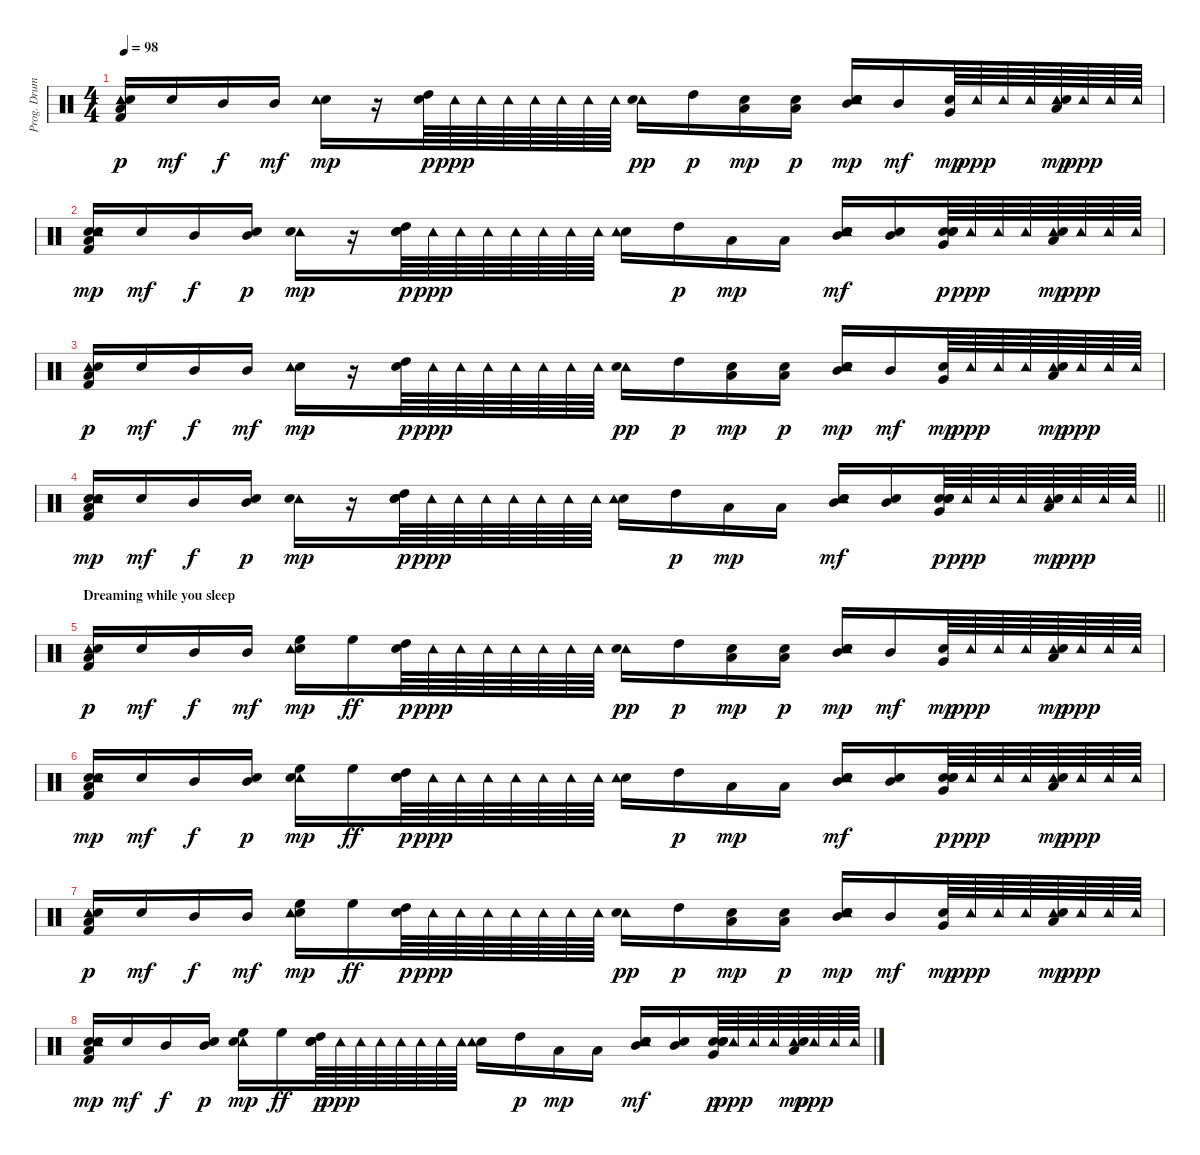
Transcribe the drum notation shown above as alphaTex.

\track ("Prog. Drums" "Prog. Drum") {instrument percussion}
\staff {score}
\articulation defaults
\ts (4 4)
\tempo 98
\clef neutral
\ks c
("Tambourine (hit)" "Snare (hit)" "Low Floor Tom (hit)" "Kick (hit) 2").16{dy p} "Snare (hit)".16{dy mf} "Mid Tom (hit)".16{dy f} "Mid Tom (hit)".16{dy mf} ("Snare (hit) 2" "Tambourine (hit)").16{dy mp} r.16 ("High Tom (hit)" "Snare (hit)").64{dy p} "Tambourine (hit)".64{dy ppp} "Tambourine (hit)".64 "Tambourine (hit)".64 "Tambourine (hit)".64 "Tambourine (hit)".64 "Tambourine (hit)".64 "Tambourine (hit)".64 ("Tambourine (hit)" "Snare (hit) 2").16{dy pp} "High Tom (hit)".16{dy p} ("Snare (hit)" "Low Tom (hit)").16{dy mp} ("Low Tom (hit)" "Snare (hit)").16{dy p} ("Snare (hit) 2" "Mid Tom (hit)" "Snare (hit)" "Tambourine (hit)").16{dy mp} "Mid Tom (hit)".16{dy mf} ("Snare (hit)" "Very Low Tom (hit)").64{dy mp} "Tambourine (hit)".64{dy ppp} "Tambourine (hit)".64 "Tambourine (hit)".64 ("Tambourine (hit)" "Snare (hit) 2" "Low Tom (hit)").64{dy mp} "Tambourine (hit)".64{dy ppp} "Tambourine (hit)".64 "Tambourine (hit)".64 |
("Snare (hit)" "Snare (hit)" "Tambourine (hit)" "Kick (hit) 2" "Low Floor Tom (hit)").16{dy mp} "Snare (hit)".16{dy mf} "Mid Tom (hit)".16{dy f} ("Mid Tom (hit)" "Snare (hit)").16{dy p} ("Tambourine (hit)" "Snare (hit) 2").16{dy mp} r.16 ("High Tom (hit)" "Snare (hit)" "Snare (hit)").64{dy p} "Tambourine (hit)".64{dy ppp} "Tambourine (hit)".64 "Tambourine (hit)".64 "Tambourine (hit)".64 "Tambourine (hit)".64 "Tambourine (hit)".64 "Tambourine (hit)".64 ("Snare (hit) 2" "Tambourine (hit)").16 "High Tom (hit)".16{dy p} "Low Tom (hit)".16{dy mp} "Low Tom (hit)".16 ("Tambourine (hit)" "Snare (hit)" "Snare (hit) 2" "Mid Tom (hit)").16{dy mf} ("Snare (hit) 2" "Mid Tom (hit)").16 ("Snare (hit) 2" "Very Low Tom (hit)" "Snare (hit)" "Snare (hit)").64{dy p} "Tambourine (hit)".64{dy ppp} "Tambourine (hit)".64 "Tambourine (hit)".64 ("Tambourine (hit)" "Snare (hit) 2" "Low Tom (hit)").64{dy mp} "Tambourine (hit)".64{dy ppp} "Tambourine (hit)".64 "Tambourine (hit)".64 |
("Tambourine (hit)" "Snare (hit)" "Low Floor Tom (hit)" "Kick (hit) 2").16{dy p} "Snare (hit)".16{dy mf} "Mid Tom (hit)".16{dy f} "Mid Tom (hit)".16{dy mf} ("Snare (hit) 2" "Tambourine (hit)").16{dy mp} r.16 ("High Tom (hit)" "Snare (hit)").64{dy p} "Tambourine (hit)".64{dy ppp} "Tambourine (hit)".64 "Tambourine (hit)".64 "Tambourine (hit)".64 "Tambourine (hit)".64 "Tambourine (hit)".64 "Tambourine (hit)".64 ("Tambourine (hit)" "Snare (hit) 2").16{dy pp} "High Tom (hit)".16{dy p} ("Snare (hit)" "Low Tom (hit)").16{dy mp} ("Low Tom (hit)" "Snare (hit)").16{dy p} ("Snare (hit) 2" "Mid Tom (hit)" "Snare (hit)" "Tambourine (hit)").16{dy mp} "Mid Tom (hit)".16{dy mf} ("Snare (hit)" "Very Low Tom (hit)").64{dy mp} "Tambourine (hit)".64{dy ppp} "Tambourine (hit)".64 "Tambourine (hit)".64 ("Tambourine (hit)" "Snare (hit) 2" "Low Tom (hit)").64{dy mp} "Tambourine (hit)".64{dy ppp} "Tambourine (hit)".64 "Tambourine (hit)".64 |
\barLineRight lightlight
("Snare (hit)" "Snare (hit)" "Tambourine (hit)" "Kick (hit) 2" "Low Floor Tom (hit)").16{dy mp} "Snare (hit)".16{dy mf} "Mid Tom (hit)".16{dy f} ("Mid Tom (hit)" "Snare (hit)").16{dy p} ("Tambourine (hit)" "Snare (hit) 2").16{dy mp} r.16 ("High Tom (hit)" "Snare (hit)" "Snare (hit)").64{dy p} "Tambourine (hit)".64{dy ppp} "Tambourine (hit)".64 "Tambourine (hit)".64 "Tambourine (hit)".64 "Tambourine (hit)".64 "Tambourine (hit)".64 "Tambourine (hit)".64 ("Snare (hit) 2" "Tambourine (hit)").16 "High Tom (hit)".16{dy p} "Low Tom (hit)".16{dy mp} "Low Tom (hit)".16 ("Tambourine (hit)" "Snare (hit)" "Snare (hit) 2" "Mid Tom (hit)").16{dy mf} ("Snare (hit) 2" "Mid Tom (hit)").16 ("Snare (hit) 2" "Very Low Tom (hit)" "Snare (hit)" "Snare (hit)").64{dy p} "Tambourine (hit)".64{dy ppp} "Tambourine (hit)".64 "Tambourine (hit)".64 ("Tambourine (hit)" "Snare (hit) 2" "Low Tom (hit)").64{dy mp} "Tambourine (hit)".64{dy ppp} "Tambourine (hit)".64 "Tambourine (hit)".64 |
\section ("" "Dreaming while you sleep")
("Tambourine (hit)" "Snare (hit)" "Low Floor Tom (hit)" "Kick (hit) 2").16{dy p} "Snare (hit)".16{dy mf} "Mid Tom (hit)".16{dy f} "Mid Tom (hit)".16{dy mf} ("Snare (hit) 2" "High Floor Tom (hit)" "Tambourine (hit)").16{dy mp} "High Floor Tom (hit)".16{dy ff} ("High Tom (hit)" "Snare (hit)").64{dy p} "Tambourine (hit)".64{dy ppp} "Tambourine (hit)".64 "Tambourine (hit)".64 "Tambourine (hit)".64 "Tambourine (hit)".64 "Tambourine (hit)".64 "Tambourine (hit)".64 ("Tambourine (hit)" "Snare (hit) 2").16{dy pp} "High Tom (hit)".16{dy p} ("Snare (hit)" "Low Tom (hit)").16{dy mp} ("Low Tom (hit)" "Snare (hit)").16{dy p} ("Snare (hit) 2" "Mid Tom (hit)" "Snare (hit)" "Tambourine (hit)").16{dy mp} "Mid Tom (hit)".16{dy mf} ("Snare (hit)" "Very Low Tom (hit)").64{dy mp} "Tambourine (hit)".64{dy ppp} "Tambourine (hit)".64 "Tambourine (hit)".64 ("Tambourine (hit)" "Snare (hit) 2" "Low Tom (hit)").64{dy mp} "Tambourine (hit)".64{dy ppp} "Tambourine (hit)".64 "Tambourine (hit)".64 |
("Snare (hit)" "Snare (hit)" "Tambourine (hit)" "Kick (hit) 2" "Low Floor Tom (hit)").16{dy mp} "Snare (hit)".16{dy mf} "Mid Tom (hit)".16{dy f} ("Mid Tom (hit)" "Snare (hit)").16{dy p} ("Tambourine (hit)" "High Floor Tom (hit)" "Snare (hit) 2").16{dy mp} "High Floor Tom (hit)".16{dy ff} ("High Tom (hit)" "Snare (hit)" "Snare (hit)").64{dy p} "Tambourine (hit)".64{dy ppp} "Tambourine (hit)".64 "Tambourine (hit)".64 "Tambourine (hit)".64 "Tambourine (hit)".64 "Tambourine (hit)".64 "Tambourine (hit)".64 ("Snare (hit) 2" "Tambourine (hit)").16 "High Tom (hit)".16{dy p} "Low Tom (hit)".16{dy mp} "Low Tom (hit)".16 ("Tambourine (hit)" "Snare (hit)" "Snare (hit) 2" "Mid Tom (hit)").16{dy mf} ("Snare (hit) 2" "Mid Tom (hit)").16 ("Snare (hit) 2" "Very Low Tom (hit)" "Snare (hit)" "Snare (hit)").64{dy p} "Tambourine (hit)".64{dy ppp} "Tambourine (hit)".64 "Tambourine (hit)".64 ("Tambourine (hit)" "Snare (hit) 2" "Low Tom (hit)").64{dy mp} "Tambourine (hit)".64{dy ppp} "Tambourine (hit)".64 "Tambourine (hit)".64 |
("Tambourine (hit)" "Snare (hit)" "Low Floor Tom (hit)" "Kick (hit) 2").16{dy p} "Snare (hit)".16{dy mf} "Mid Tom (hit)".16{dy f} "Mid Tom (hit)".16{dy mf} ("Snare (hit) 2" "High Floor Tom (hit)" "Tambourine (hit)").16{dy mp} "High Floor Tom (hit)".16{dy ff} ("High Tom (hit)" "Snare (hit)").64{dy p} "Tambourine (hit)".64{dy ppp} "Tambourine (hit)".64 "Tambourine (hit)".64 "Tambourine (hit)".64 "Tambourine (hit)".64 "Tambourine (hit)".64 "Tambourine (hit)".64 ("Tambourine (hit)" "Snare (hit) 2").16{dy pp} "High Tom (hit)".16{dy p} ("Snare (hit)" "Low Tom (hit)").16{dy mp} ("Low Tom (hit)" "Snare (hit)").16{dy p} ("Snare (hit) 2" "Mid Tom (hit)" "Snare (hit)" "Tambourine (hit)").16{dy mp} "Mid Tom (hit)".16{dy mf} ("Snare (hit)" "Very Low Tom (hit)").64{dy mp} "Tambourine (hit)".64{dy ppp} "Tambourine (hit)".64 "Tambourine (hit)".64 ("Tambourine (hit)" "Snare (hit) 2" "Low Tom (hit)").64{dy mp} "Tambourine (hit)".64{dy ppp} "Tambourine (hit)".64 "Tambourine (hit)".64 |
("Snare (hit)" "Snare (hit)" "Tambourine (hit)" "Kick (hit) 2" "Low Floor Tom (hit)").16{dy mp} "Snare (hit)".16{dy mf} "Mid Tom (hit)".16{dy f} ("Mid Tom (hit)" "Snare (hit)").16{dy p} ("Tambourine (hit)" "High Floor Tom (hit)" "Snare (hit) 2").16{dy mp} "High Floor Tom (hit)".16{dy ff} ("High Tom (hit)" "Snare (hit)" "Snare (hit)").64{dy p} "Tambourine (hit)".64{dy ppp} "Tambourine (hit)".64 "Tambourine (hit)".64 "Tambourine (hit)".64 "Tambourine (hit)".64 "Tambourine (hit)".64 "Tambourine (hit)".64 ("Snare (hit) 2" "Tambourine (hit)").16 "High Tom (hit)".16{dy p} "Low Tom (hit)".16{dy mp} "Low Tom (hit)".16 ("Tambourine (hit)" "Snare (hit)" "Snare (hit) 2" "Mid Tom (hit)").16{dy mf} ("Snare (hit) 2" "Mid Tom (hit)").16 ("Snare (hit) 2" "Very Low Tom (hit)" "Snare (hit)" "Snare (hit)").64{dy p} "Tambourine (hit)".64{dy ppp} "Tambourine (hit)".64 "Tambourine (hit)".64 ("Tambourine (hit)" "Snare (hit) 2" "Low Tom (hit)").64{dy mp} "Tambourine (hit)".64{dy ppp} "Tambourine (hit)".64 "Tambourine (hit)".64
